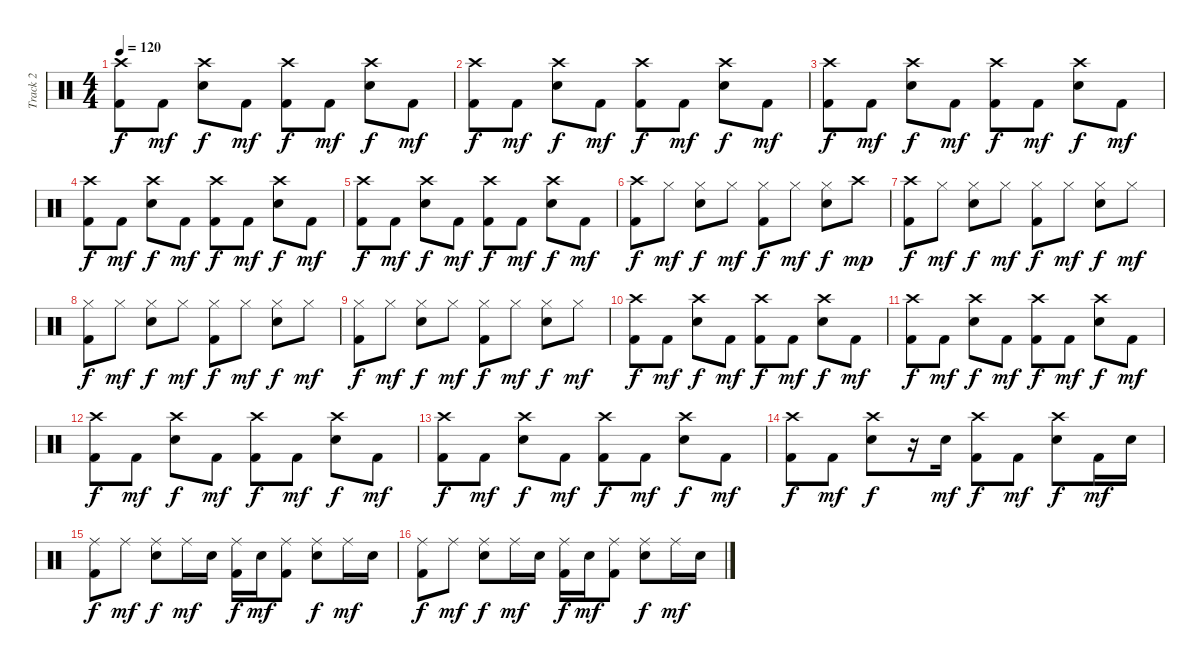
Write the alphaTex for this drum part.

\track ("Track 2" "Track 2") {instrument percussion}
\staff {score}
\articulation defaults
\ts (4 4)
\tempo 120
\clef neutral
\ks c
("Crash high (hit)" "Kick (hit) 2").8{dy f} "Kick (hit) 2".8{dy mf} ("Crash high (hit)" "Electric Snare (hit)").8{dy f} "Kick (hit) 2".8{dy mf} ("Crash high (hit)" "Kick (hit) 2").8{dy f} "Kick (hit) 2".8{dy mf} ("Crash high (hit)" "Electric Snare (hit)").8{dy f} "Kick (hit) 2".8{dy mf} |
("Crash high (hit)" "Kick (hit) 2").8{dy f} "Kick (hit) 2".8{dy mf} ("Crash high (hit)" "Electric Snare (hit)").8{dy f} "Kick (hit) 2".8{dy mf} ("Crash high (hit)" "Kick (hit) 2").8{dy f} "Kick (hit) 2".8{dy mf} ("Crash high (hit)" "Electric Snare (hit)").8{dy f} "Kick (hit) 2".8{dy mf} |
("Crash high (hit)" "Kick (hit) 2").8{dy f} "Kick (hit) 2".8{dy mf} ("Crash high (hit)" "Electric Snare (hit)").8{dy f} "Kick (hit) 2".8{dy mf} ("Crash high (hit)" "Kick (hit) 2").8{dy f} "Kick (hit) 2".8{dy mf} ("Crash high (hit)" "Electric Snare (hit)").8{dy f} "Kick (hit) 2".8{dy mf} |
("Crash high (hit)" "Kick (hit) 2").8{dy f} "Kick (hit) 2".8{dy mf} ("Crash high (hit)" "Electric Snare (hit)").8{dy f} "Kick (hit) 2".8{dy mf} ("Crash high (hit)" "Kick (hit) 2").8{dy f} "Kick (hit) 2".8{dy mf} ("Crash high (hit)" "Electric Snare (hit)").8{dy f} "Kick (hit) 2".8{dy mf} |
("Crash high (hit)" "Kick (hit) 2").8{dy f} "Kick (hit) 2".8{dy mf} ("Crash high (hit)" "Electric Snare (hit)").8{dy f} "Kick (hit) 2".8{dy mf} ("Crash high (hit)" "Kick (hit) 2").8{dy f} "Kick (hit) 2".8{dy mf} ("Crash high (hit)" "Electric Snare (hit)").8{dy f} "Kick (hit) 2".8{dy mf} |
("Crash high (hit)" "Kick (hit) 2").8{dy f} "Hi-Hat (closed)".8{dy mf} ("Hi-Hat (closed)" "Electric Snare (hit)").8{dy f} "Hi-Hat (closed)".8{dy mf} ("Hi-Hat (closed)" "Kick (hit) 2").8{dy f} "Hi-Hat (closed)".8{dy mf} ("Hi-Hat (closed)" "Electric Snare (hit)").8{dy f} "Crash high (hit)".8{dy mp} |
("Crash high (hit)" "Kick (hit) 2").8{dy f} "Hi-Hat (closed)".8{dy mf} ("Hi-Hat (closed)" "Electric Snare (hit)").8{dy f} "Hi-Hat (closed)".8{dy mf} ("Hi-Hat (closed)" "Kick (hit) 2").8{dy f} "Hi-Hat (closed)".8{dy mf} ("Hi-Hat (closed)" "Electric Snare (hit)").8{dy f} "Hi-Hat (closed)".8{dy mf} |
("Hi-Hat (closed)" "Kick (hit) 2").8{dy f} "Hi-Hat (closed)".8{dy mf} ("Hi-Hat (closed)" "Electric Snare (hit)").8{dy f} "Hi-Hat (closed)".8{dy mf} ("Hi-Hat (closed)" "Kick (hit) 2").8{dy f} "Hi-Hat (closed)".8{dy mf} ("Hi-Hat (closed)" "Electric Snare (hit)").8{dy f} "Hi-Hat (closed)".8{dy mf} |
("Hi-Hat (closed)" "Kick (hit) 2").8{dy f} "Hi-Hat (closed)".8{dy mf} ("Hi-Hat (closed)" "Electric Snare (hit)").8{dy f} "Hi-Hat (closed)".8{dy mf} ("Hi-Hat (closed)" "Kick (hit) 2").8{dy f} "Hi-Hat (closed)".8{dy mf} ("Hi-Hat (closed)" "Electric Snare (hit)").8{dy f} "Hi-Hat (closed)".8{dy mf} |
("Crash high (hit)" "Kick (hit) 2").8{dy f} "Kick (hit) 2".8{dy mf} ("Crash high (hit)" "Electric Snare (hit)").8{dy f} "Kick (hit) 2".8{dy mf} ("Crash high (hit)" "Kick (hit) 2").8{dy f} "Kick (hit) 2".8{dy mf} ("Crash high (hit)" "Electric Snare (hit)").8{dy f} "Kick (hit) 2".8{dy mf} |
("Crash high (hit)" "Kick (hit) 2").8{dy f} "Kick (hit) 2".8{dy mf} ("Crash high (hit)" "Electric Snare (hit)").8{dy f} "Kick (hit) 2".8{dy mf} ("Crash high (hit)" "Kick (hit) 2").8{dy f} "Kick (hit) 2".8{dy mf} ("Crash high (hit)" "Electric Snare (hit)").8{dy f} "Kick (hit) 2".8{dy mf} |
("Crash high (hit)" "Kick (hit) 2").8{dy f} "Kick (hit) 2".8{dy mf} ("Crash high (hit)" "Electric Snare (hit)").8{dy f} "Kick (hit) 2".8{dy mf} ("Crash high (hit)" "Kick (hit) 2").8{dy f} "Kick (hit) 2".8{dy mf} ("Crash high (hit)" "Electric Snare (hit)").8{dy f} "Kick (hit) 2".8{dy mf} |
("Crash high (hit)" "Kick (hit) 2").8{dy f} "Kick (hit) 2".8{dy mf} ("Crash high (hit)" "Electric Snare (hit)").8{dy f} "Kick (hit) 2".8{dy mf} ("Crash high (hit)" "Kick (hit) 2").8{dy f} "Kick (hit) 2".8{dy mf} ("Crash high (hit)" "Electric Snare (hit)").8{dy f} "Kick (hit) 2".8{dy mf} |
("Crash high (hit)" "Kick (hit) 2").8{dy f} "Kick (hit) 2".8{dy mf} ("Crash high (hit)" "Electric Snare (hit)").8{dy f} r.16 "Electric Snare (hit)".16{dy mf} ("Crash high (hit)" "Kick (hit) 2").8{dy f} "Kick (hit) 2".8{dy mf} ("Crash high (hit)" "Electric Snare (hit)").8{dy f} "Kick (hit) 2".16{dy mf} "Electric Snare (hit)".16 |
("Ride (middle)" "Kick (hit) 2").8{dy f} "Ride (middle)".8{dy mf} ("Ride (middle)" "Electric Snare (hit)").8{dy f} "Ride (middle)".16{dy mf} "Electric Snare (hit)".16 ("Ride (middle)" "Kick (hit) 2").16{dy f} "Electric Snare (hit)".16{dy mf} ("Ride (middle)" "Kick (hit) 2").8 ("Ride (middle)" "Electric Snare (hit)").8{dy f} "Ride (middle)".16{dy mf} "Electric Snare (hit)".16 |
("Ride (middle)" "Kick (hit) 2").8{dy f} "Ride (middle)".8{dy mf} ("Ride (middle)" "Electric Snare (hit)").8{dy f} "Ride (middle)".16{dy mf} "Electric Snare (hit)".16 ("Ride (middle)" "Kick (hit) 2").16{dy f} "Electric Snare (hit)".16{dy mf} ("Ride (middle)" "Kick (hit) 2").8 ("Ride (middle)" "Electric Snare (hit)").8{dy f} "Ride (middle)".16{dy mf} "Electric Snare (hit)".16
